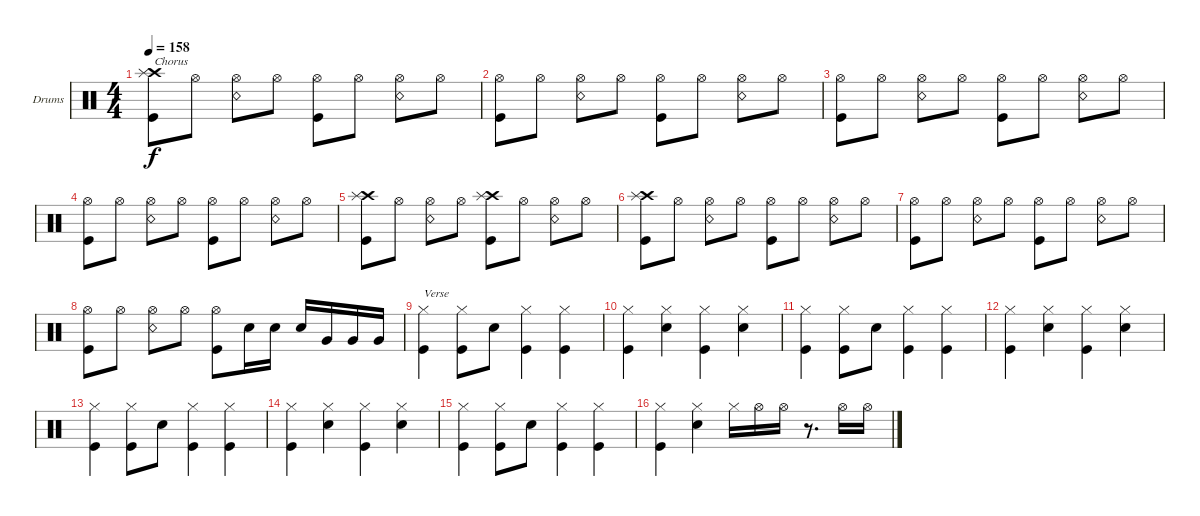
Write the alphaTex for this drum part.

\bracketExtendMode groupsimilarinstruments
\firstSystemTrackNameOrientation horizontal
\otherSystemsTrackNameOrientation horizontal
\track ("Drumkit" "Drums") {instrument percussion}
\staff {score}
\articulation defaults
\ts (4 4)
\tempo 158
\clef neutral
\ks c
("Kick (hit)" "Crash high (hit)" "Splash (hit)").8{txt "Chorus" dy f} "Hi-Hat (open)".8 ("Hi-Hat (open)" "Snare (rim shot)").8 "Hi-Hat (open)".8 ("Hi-Hat (open)" "Kick (hit)").8 "Hi-Hat (open)".8 ("Hi-Hat (open)" "Snare (rim shot)").8 "Hi-Hat (open)".8 |
("Hi-Hat (open)" "Kick (hit)").8 "Hi-Hat (open)".8 ("Hi-Hat (open)" "Snare (rim shot)").8 "Hi-Hat (open)".8 ("Hi-Hat (open)" "Kick (hit)").8 "Hi-Hat (open)".8 ("Hi-Hat (open)" "Snare (rim shot)").8 "Hi-Hat (open)".8 |
("Hi-Hat (open)" "Kick (hit)").8 "Hi-Hat (open)".8 ("Hi-Hat (open)" "Snare (rim shot)").8 "Hi-Hat (open)".8 ("Hi-Hat (open)" "Kick (hit)").8 "Hi-Hat (open)".8 ("Hi-Hat (open)" "Snare (rim shot)").8 "Hi-Hat (open)".8 |
("Hi-Hat (open)" "Kick (hit)").8 "Hi-Hat (open)".8 ("Hi-Hat (open)" "Snare (rim shot)").8 "Hi-Hat (open)".8 ("Hi-Hat (open)" "Kick (hit)").8 "Hi-Hat (open)".8 ("Hi-Hat (open)" "Snare (rim shot)").8 "Hi-Hat (open)".8 |
("Kick (hit)" "Crash high (hit)" "Splash (hit)").8 "Hi-Hat (open)".8 ("Hi-Hat (open)" "Snare (rim shot)").8 "Hi-Hat (open)".8 ("Kick (hit)" "Crash high (hit)" "Splash (hit)").8 "Hi-Hat (open)".8 ("Hi-Hat (open)" "Snare (rim shot)").8 "Hi-Hat (open)".8 |
("Kick (hit)" "Crash high (hit)" "Splash (hit)").8 "Hi-Hat (open)".8 ("Hi-Hat (open)" "Snare (rim shot)").8 "Hi-Hat (open)".8 ("Hi-Hat (open)" "Kick (hit)").8 "Hi-Hat (open)".8 ("Hi-Hat (open)" "Snare (rim shot)").8 "Hi-Hat (open)".8 |
("Hi-Hat (open)" "Kick (hit)").8 "Hi-Hat (open)".8 ("Hi-Hat (open)" "Snare (rim shot)").8 "Hi-Hat (open)".8 ("Hi-Hat (open)" "Kick (hit)").8 "Hi-Hat (open)".8 ("Hi-Hat (open)" "Snare (rim shot)").8 "Hi-Hat (open)".8 |
("Hi-Hat (open)" "Kick (hit)").8 "Hi-Hat (open)".8 ("Hi-Hat (open)" "Snare (rim shot)").8 "Hi-Hat (open)".8 ("Hi-Hat (open)" "Kick (hit)").8 "Snare (hit) 2".16 "Snare (hit) 2".16 "Snare (hit) 2".16 "Very Low Tom (hit)".16 "Very Low Tom (hit)".16 "Very Low Tom (hit)".16 |
("Hi-Hat (closed)" "Kick (hit)").4{txt "Verse"} ("Hi-Hat (closed)" "Kick (hit)").8 "Snare (hit) 2".8 ("Hi-Hat (closed)" "Kick (hit)").4 ("Hi-Hat (closed)" "Kick (hit)").4 |
("Hi-Hat (closed)" "Kick (hit)").4 ("Hi-Hat (closed)" "Snare (hit) 2").4 ("Hi-Hat (closed)" "Kick (hit)").4 ("Hi-Hat (closed)" "Snare (hit) 2").4 |
("Hi-Hat (closed)" "Kick (hit)").4 ("Hi-Hat (closed)" "Kick (hit)").8 "Snare (hit) 2".8 ("Hi-Hat (closed)" "Kick (hit)").4 ("Hi-Hat (closed)" "Kick (hit)").4 |
("Hi-Hat (closed)" "Kick (hit)").4 ("Hi-Hat (closed)" "Snare (hit) 2").4 ("Hi-Hat (closed)" "Kick (hit)").4 ("Hi-Hat (closed)" "Snare (hit) 2").4 |
("Hi-Hat (closed)" "Kick (hit)").4 ("Hi-Hat (closed)" "Kick (hit)").8 "Snare (hit) 2".8 ("Hi-Hat (closed)" "Kick (hit)").4 ("Hi-Hat (closed)" "Kick (hit)").4 |
("Hi-Hat (closed)" "Kick (hit)").4 ("Hi-Hat (closed)" "Snare (hit) 2").4 ("Hi-Hat (closed)" "Kick (hit)").4 ("Hi-Hat (closed)" "Snare (hit) 2").4 |
("Hi-Hat (closed)" "Kick (hit)").4 ("Hi-Hat (closed)" "Kick (hit)").8 "Snare (hit) 2".8 ("Hi-Hat (closed)" "Kick (hit)").4 ("Hi-Hat (closed)" "Kick (hit)").4 |
("Hi-Hat (closed)" "Kick (hit)").4 ("Hi-Hat (closed)" "Snare (hit) 2").4 "Hi-Hat (closed)".16 "Hi-Hat (open)".16 "Hi-Hat (open)".16 r.8{d} "Hi-Hat (open)".16 "Hi-Hat (open)".16
